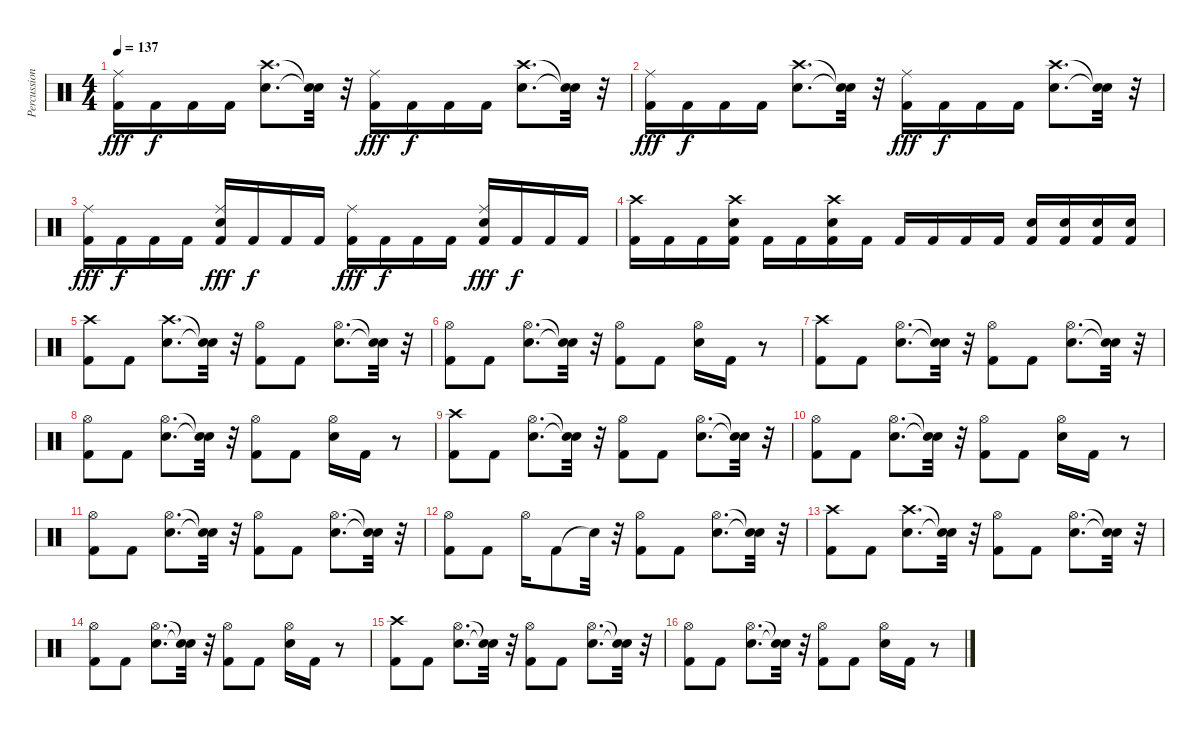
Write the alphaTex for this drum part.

\track ("Percussion" "Percussion") {instrument percussion}
\staff {score}
\articulation defaults
\ts (4 4)
\tempo 137
\clef neutral
\ks c
("Kick (hit) 2" "Ride (middle)").16{dy fff} "Kick (hit) 2".16{dy f} "Kick (hit) 2".16 "Kick (hit) 2".16 ("Snare (hit) 2" "Crash high (hit)").8{d} ("Snare (hit)"{t} "Snare (hit)"{t}).32 r.32 ("Kick (hit) 2" "Ride (middle)").16{dy fff} "Kick (hit) 2".16{dy f} "Kick (hit) 2".16 "Kick (hit) 2".16 ("Snare (hit) 2" "Crash high (hit)").8{d} ("Snare (hit)"{t} "Snare (hit)"{t}).32 r.32 |
("Kick (hit) 2" "Ride (middle)").16{dy fff} "Kick (hit) 2".16{dy f} "Kick (hit) 2".16 "Kick (hit) 2".16 ("Snare (hit) 2" "Crash high (hit)").8{d} ("Snare (hit)"{t} "Snare (hit)"{t}).32 r.32 ("Kick (hit) 2" "Ride (middle)").16{dy fff} "Kick (hit) 2".16{dy f} "Kick (hit) 2".16 "Kick (hit) 2".16 ("Snare (hit) 2" "Crash high (hit)").8{d} ("Snare (hit)"{t} "Snare (hit)"{t}).32 r.32 |
("Kick (hit) 2" "Ride (middle)").16{dy fff} "Kick (hit) 2".16{dy f} "Kick (hit) 2".16 "Kick (hit) 2".16 ("Kick (hit) 2" "Ride (middle)" "Snare (hit) 2").16{dy fff} "Kick (hit) 2".16{dy f} "Kick (hit) 2".16 "Kick (hit) 2".16 ("Kick (hit) 2" "Ride (middle)").16{dy fff} "Kick (hit) 2".16{dy f} "Kick (hit) 2".16 "Kick (hit) 2".16 ("Kick (hit) 2" "Ride (middle)" "Snare (hit) 2").16{dy fff} "Kick (hit) 2".16{dy f} "Kick (hit) 2".16 "Kick (hit) 2".16 |
("Crash high (hit)" "Kick (hit) 2").16 "Kick (hit) 2".16 "Kick (hit) 2".16 ("Crash high (hit)" "Snare (hit) 2" "Kick (hit) 2").16 "Kick (hit) 2".16 "Kick (hit) 2".16 ("Crash high (hit)" "Snare (hit) 2" "Kick (hit) 2").16 "Kick (hit) 2".16 "Kick (hit) 2".16 "Kick (hit) 2".16 "Kick (hit) 2".16 "Kick (hit) 2".16 ("Snare (hit) 2" "Kick (hit) 2").16 ("Snare (hit) 2" "Kick (hit) 2").16 ("Snare (hit) 2" "Kick (hit) 2").16 ("Snare (hit) 2" "Kick (hit) 2").16 |
("Crash high (hit)" "Kick (hit) 2").8 "Kick (hit) 2".8 ("Crash high (hit)" "Snare (hit) 2").8{d} ("Snare (hit)"{t} "Snare (hit)"{t}).32 r.32 ("Hi-Hat (open)" "Kick (hit) 2").8 "Kick (hit) 2".8 ("Hi-Hat (open)" "Snare (hit) 2").8{d} ("Snare (hit)"{t} "Snare (hit)"{t}).32 r.32 |
("Hi-Hat (open)" "Kick (hit) 2").8 "Kick (hit) 2".8 ("Hi-Hat (open)" "Snare (hit) 2").8{d} ("Snare (hit)"{t} "Snare (hit)"{t}).32 r.32 ("Hi-Hat (open)" "Kick (hit) 2").8 "Kick (hit) 2".8 ("Hi-Hat (open)" "Snare (hit) 2").16 "Kick (hit) 2".16 r.8 |
("Crash high (hit)" "Kick (hit) 2").8 "Kick (hit) 2".8 ("Hi-Hat (open)" "Snare (hit) 2").8{d} ("Snare (hit)"{t} "Snare (hit)"{t}).32 r.32 ("Hi-Hat (open)" "Kick (hit) 2").8 "Kick (hit) 2".8 ("Hi-Hat (open)" "Snare (hit) 2").8{d} ("Snare (hit)"{t} "Snare (hit)"{t}).32 r.32 |
("Hi-Hat (open)" "Kick (hit) 2").8 "Kick (hit) 2".8 ("Hi-Hat (open)" "Snare (hit) 2").8{d} ("Snare (hit)"{t} "Snare (hit)"{t}).32 r.32 ("Hi-Hat (open)" "Kick (hit) 2").8 "Kick (hit) 2".8 ("Hi-Hat (open)" "Snare (hit) 2").16 "Kick (hit) 2".16 r.8 |
("Crash high (hit)" "Kick (hit) 2").8 "Kick (hit) 2".8 ("Hi-Hat (open)" "Snare (hit) 2").8{d} ("Snare (hit)"{t} "Snare (hit)"{t}).32 r.32 ("Hi-Hat (open)" "Kick (hit) 2").8 "Kick (hit) 2".8 ("Hi-Hat (open)" "Snare (hit) 2").8{d} ("Snare (hit)"{t} "Snare (hit)"{t}).32 r.32 |
("Hi-Hat (open)" "Kick (hit) 2").8 "Kick (hit) 2".8 ("Hi-Hat (open)" "Snare (hit) 2").8{d} ("Snare (hit)"{t} "Snare (hit)"{t}).32 r.32 ("Hi-Hat (open)" "Kick (hit) 2").8 "Kick (hit) 2".8 ("Hi-Hat (open)" "Snare (hit) 2").16 "Kick (hit) 2".16 r.8 |
("Hi-Hat (open)" "Kick (hit) 2").8 "Kick (hit) 2".8 ("Hi-Hat (open)" "Snare (hit) 2").8{d} ("Snare (hit)"{t} "Snare (hit)"{t}).32 r.32 ("Hi-Hat (open)" "Kick (hit) 2").8 "Kick (hit) 2".8 ("Hi-Hat (open)" "Snare (hit) 2").8{d} ("Snare (hit)"{t} "Snare (hit)"{t}).32 r.32 |
("Kick (hit) 2" "Hi-Hat (open)").8 "Kick (hit) 2".8 "Hi-Hat (open)".16 "Kick (hit) 2".8 "Snare (hit)"{t}.32 r.32 ("Kick (hit) 2" "Hi-Hat (open)").8 "Kick (hit) 2".8 ("Hi-Hat (open)" "Snare (hit) 2").8{d} ("Snare (hit)"{t} "Snare (hit)"{t}).32 r.32 |
("Crash high (hit)" "Kick (hit) 2").8 "Kick (hit) 2".8 ("Crash high (hit)" "Snare (hit) 2").8{d} ("Snare (hit)"{t} "Snare (hit)"{t}).32 r.32 ("Hi-Hat (open)" "Kick (hit) 2").8 "Kick (hit) 2".8 ("Hi-Hat (open)" "Snare (hit) 2").8{d} ("Snare (hit)"{t} "Snare (hit)"{t}).32 r.32 |
("Hi-Hat (open)" "Kick (hit) 2").8 "Kick (hit) 2".8 ("Hi-Hat (open)" "Snare (hit) 2").8{d} ("Snare (hit)"{t} "Snare (hit)"{t}).32 r.32 ("Hi-Hat (open)" "Kick (hit) 2").8 "Kick (hit) 2".8 ("Hi-Hat (open)" "Snare (hit) 2").16 "Kick (hit) 2".16 r.8 |
("Crash high (hit)" "Kick (hit) 2").8 "Kick (hit) 2".8 ("Hi-Hat (open)" "Snare (hit) 2").8{d} ("Snare (hit)"{t} "Snare (hit)"{t}).32 r.32 ("Hi-Hat (open)" "Kick (hit) 2").8 "Kick (hit) 2".8 ("Hi-Hat (open)" "Snare (hit) 2").8{d} ("Snare (hit)"{t} "Snare (hit)"{t}).32 r.32 |
("Hi-Hat (open)" "Kick (hit) 2").8 "Kick (hit) 2".8 ("Hi-Hat (open)" "Snare (hit) 2").8{d} ("Snare (hit)"{t} "Snare (hit)"{t}).32 r.32 ("Hi-Hat (open)" "Kick (hit) 2").8 "Kick (hit) 2".8 ("Hi-Hat (open)" "Snare (hit) 2").16 "Kick (hit) 2".16 r.8
